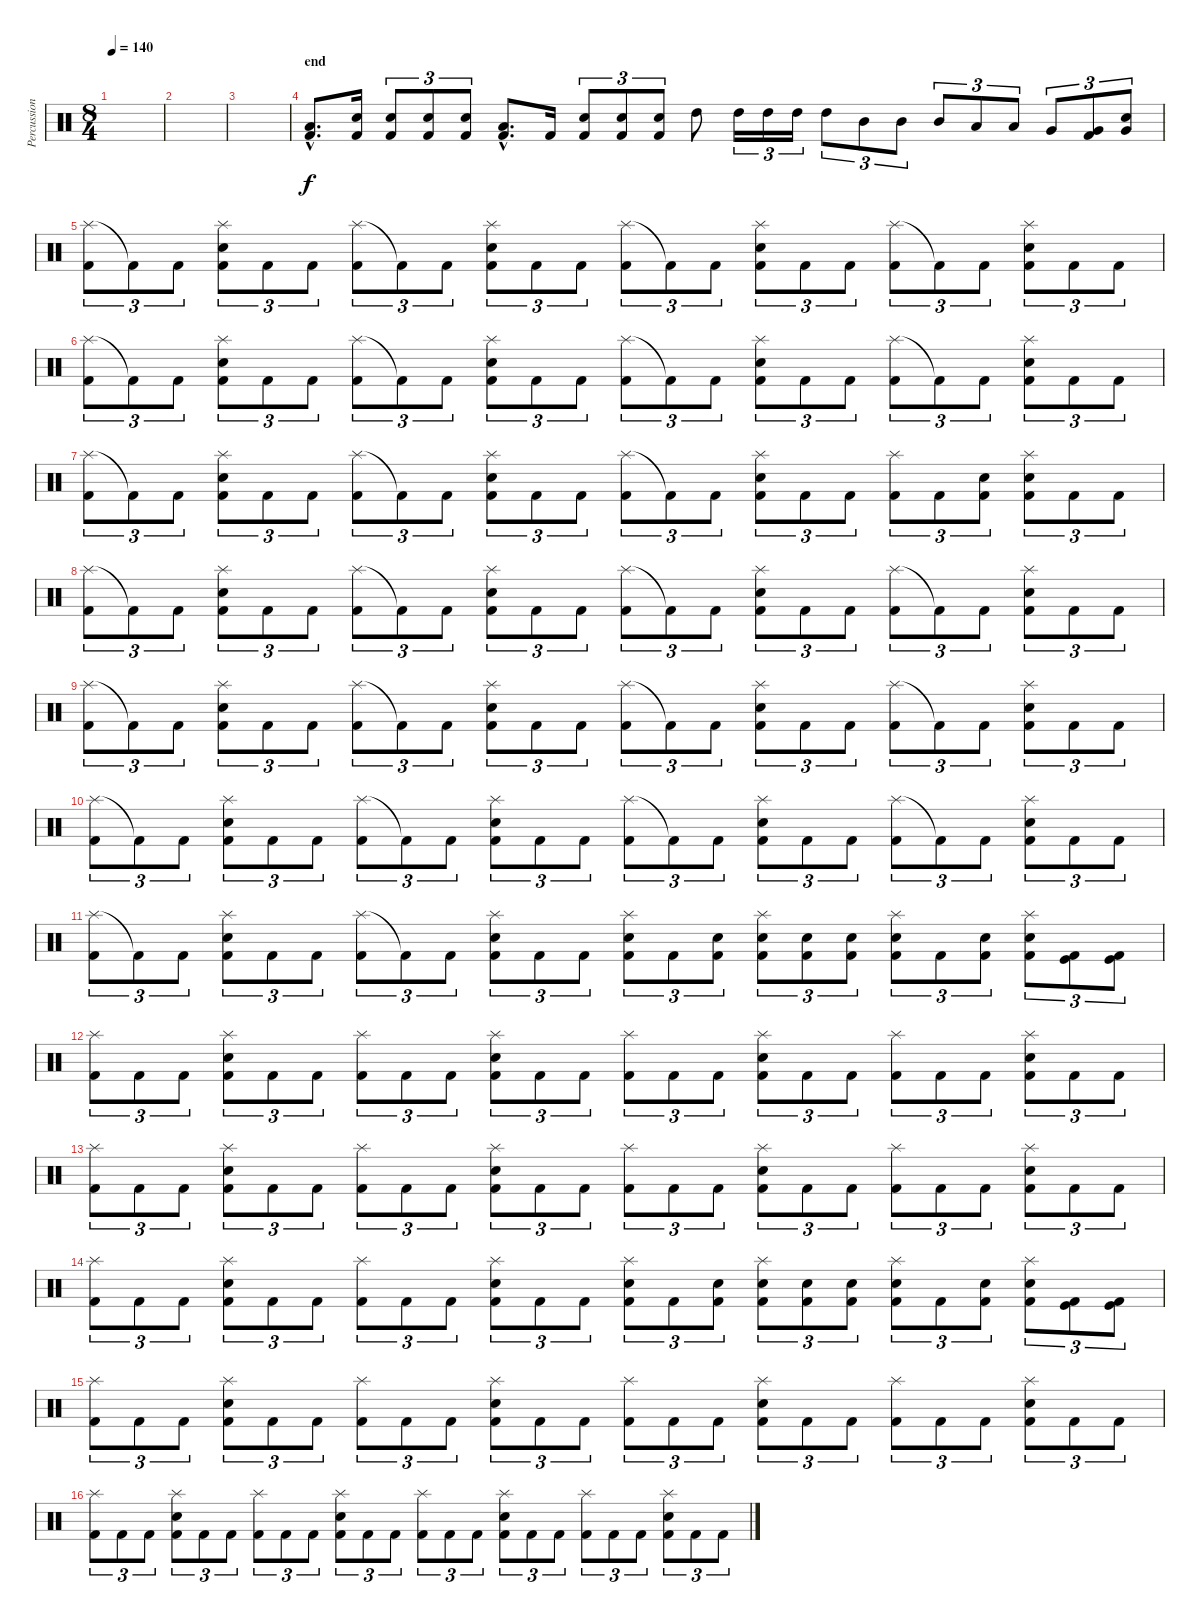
\track ("Percussion" "Percussion") {instrument percussion}
\staff {score}
\articulation defaults
\ts (8 4)
\tempo 140
\clef neutral
\ks c
|
|
|
\section ("" "end")
("Low Tom (hit)"{hac} "Kick (hit) 2"{hac}).8{d} ("Snare (hit) 2" "Kick (hit) 2").16 ("Snare (hit) 2" "Kick (hit) 2").8{tu (3 2)} ("Snare (hit) 2" "Kick (hit) 2").8{tu (3 2)} ("Snare (hit) 2" "Kick (hit) 2").8{tu (3 2)} ("Low Floor Tom (hit)"{hac} "Kick (hit) 2"{hac}).8{d} "Kick (hit) 2".16 ("Snare (hit) 2" "Kick (hit) 2").8{tu (3 2)} ("Snare (hit) 2" "Kick (hit) 2").8{tu (3 2)} ("Snare (hit) 2" "Kick (hit) 2").8{tu (3 2)} "High Tom (hit)".8 "High Tom (hit)".16{tu (3 2)} "High Tom (hit)".16{tu (3 2)} "High Tom (hit)".16{tu (3 2)} "High Tom (hit)".8{tu (3 2)} "Mid Tom (hit)".8{tu (3 2)} "Mid Tom (hit)".8{tu (3 2)} "Mid Tom (hit)".8{tu (3 2)} "Low Tom (hit)".8{tu (3 2)} "Low Tom (hit)".8{tu (3 2)} "Very Low Tom (hit)".8{tu (3 2)} ("Kick (hit) 2" "Very Low Tom (hit)").8{tu (3 2)} ("Snare (hit) 2" "Very Low Tom (hit)").8{tu (3 2)} |
("Splash (hit)" "Kick (hit) 2").8{tu (3 2)} "Kick (hit) 2"{t}.8{tu (3 2)} "Kick (hit) 2".8{tu (3 2)} ("Splash (hit)" "Snare (hit) 2" "Kick (hit) 2").8{tu (3 2)} "Kick (hit) 2".8{tu (3 2)} "Kick (hit) 2".8{tu (3 2)} ("Splash (hit)" "Kick (hit) 2").8{tu (3 2)} "Kick (hit) 2"{t}.8{tu (3 2)} "Kick (hit) 2".8{tu (3 2)} ("Splash (hit)" "Snare (hit) 2" "Kick (hit) 2").8{tu (3 2)} "Kick (hit) 2".8{tu (3 2)} "Kick (hit) 2".8{tu (3 2)} ("Splash (hit)" "Kick (hit) 2").8{tu (3 2)} "Kick (hit) 2"{t}.8{tu (3 2)} "Kick (hit) 2".8{tu (3 2)} ("Splash (hit)" "Snare (hit) 2" "Kick (hit) 2").8{tu (3 2)} "Kick (hit) 2".8{tu (3 2)} "Kick (hit) 2".8{tu (3 2)} ("Splash (hit)" "Kick (hit) 2").8{tu (3 2)} "Kick (hit) 2"{t}.8{tu (3 2)} "Kick (hit) 2".8{tu (3 2)} ("Splash (hit)" "Snare (hit) 2" "Kick (hit) 2").8{tu (3 2)} "Kick (hit) 2".8{tu (3 2)} "Kick (hit) 2".8{tu (3 2)} |
("Splash (hit)" "Kick (hit) 2").8{tu (3 2)} "Kick (hit) 2"{t}.8{tu (3 2)} "Kick (hit) 2".8{tu (3 2)} ("Splash (hit)" "Snare (hit) 2" "Kick (hit) 2").8{tu (3 2)} "Kick (hit) 2".8{tu (3 2)} "Kick (hit) 2".8{tu (3 2)} ("Splash (hit)" "Kick (hit) 2").8{tu (3 2)} "Kick (hit) 2"{t}.8{tu (3 2)} "Kick (hit) 2".8{tu (3 2)} ("Splash (hit)" "Snare (hit) 2" "Kick (hit) 2").8{tu (3 2)} "Kick (hit) 2".8{tu (3 2)} "Kick (hit) 2".8{tu (3 2)} ("Splash (hit)" "Kick (hit) 2").8{tu (3 2)} "Kick (hit) 2"{t}.8{tu (3 2)} "Kick (hit) 2".8{tu (3 2)} ("Splash (hit)" "Snare (hit) 2" "Kick (hit) 2").8{tu (3 2)} "Kick (hit) 2".8{tu (3 2)} "Kick (hit) 2".8{tu (3 2)} ("Splash (hit)" "Kick (hit) 2").8{tu (3 2)} "Kick (hit) 2"{t}.8{tu (3 2)} "Kick (hit) 2".8{tu (3 2)} ("Splash (hit)" "Snare (hit) 2" "Kick (hit) 2").8{tu (3 2)} "Kick (hit) 2".8{tu (3 2)} "Kick (hit) 2".8{tu (3 2)} |
("Splash (hit)" "Kick (hit) 2").8{tu (3 2)} "Kick (hit) 2"{t}.8{tu (3 2)} "Kick (hit) 2".8{tu (3 2)} ("Splash (hit)" "Snare (hit) 2" "Kick (hit) 2").8{tu (3 2)} "Kick (hit) 2".8{tu (3 2)} "Kick (hit) 2".8{tu (3 2)} ("Splash (hit)" "Kick (hit) 2").8{tu (3 2)} "Kick (hit) 2"{t}.8{tu (3 2)} "Kick (hit) 2".8{tu (3 2)} ("Splash (hit)" "Snare (hit) 2" "Kick (hit) 2").8{tu (3 2)} "Kick (hit) 2".8{tu (3 2)} "Kick (hit) 2".8{tu (3 2)} ("Splash (hit)" "Kick (hit) 2").8{tu (3 2)} "Kick (hit) 2"{t}.8{tu (3 2)} "Kick (hit) 2".8{tu (3 2)} ("Splash (hit)" "Snare (hit) 2" "Kick (hit) 2").8{tu (3 2)} "Kick (hit) 2".8{tu (3 2)} "Kick (hit) 2".8{tu (3 2)} ("Splash (hit)" "Kick (hit) 2").8{tu (3 2)} "Kick (hit) 2".8{tu (3 2)} ("Snare (hit) 2" "Kick (hit) 2").8{tu (3 2)} ("Splash (hit)" "Snare (hit) 2" "Kick (hit) 2").8{tu (3 2)} "Kick (hit) 2".8{tu (3 2)} "Kick (hit) 2".8{tu (3 2)} |
("Splash (hit)" "Kick (hit) 2").8{tu (3 2)} "Kick (hit) 2"{t}.8{tu (3 2)} "Kick (hit) 2".8{tu (3 2)} ("Splash (hit)" "Snare (hit) 2" "Kick (hit) 2").8{tu (3 2)} "Kick (hit) 2".8{tu (3 2)} "Kick (hit) 2".8{tu (3 2)} ("Splash (hit)" "Kick (hit) 2").8{tu (3 2)} "Kick (hit) 2"{t}.8{tu (3 2)} "Kick (hit) 2".8{tu (3 2)} ("Splash (hit)" "Snare (hit) 2" "Kick (hit) 2").8{tu (3 2)} "Kick (hit) 2".8{tu (3 2)} "Kick (hit) 2".8{tu (3 2)} ("Splash (hit)" "Kick (hit) 2").8{tu (3 2)} "Kick (hit) 2"{t}.8{tu (3 2)} "Kick (hit) 2".8{tu (3 2)} ("Splash (hit)" "Snare (hit) 2" "Kick (hit) 2").8{tu (3 2)} "Kick (hit) 2".8{tu (3 2)} "Kick (hit) 2".8{tu (3 2)} ("Splash (hit)" "Kick (hit) 2").8{tu (3 2)} "Kick (hit) 2"{t}.8{tu (3 2)} "Kick (hit) 2".8{tu (3 2)} ("Splash (hit)" "Snare (hit) 2" "Kick (hit) 2").8{tu (3 2)} "Kick (hit) 2".8{tu (3 2)} "Kick (hit) 2".8{tu (3 2)} |
("Splash (hit)" "Kick (hit) 2").8{tu (3 2)} "Kick (hit) 2"{t}.8{tu (3 2)} "Kick (hit) 2".8{tu (3 2)} ("Splash (hit)" "Snare (hit) 2" "Kick (hit) 2").8{tu (3 2)} "Kick (hit) 2".8{tu (3 2)} "Kick (hit) 2".8{tu (3 2)} ("Splash (hit)" "Kick (hit) 2").8{tu (3 2)} "Kick (hit) 2"{t}.8{tu (3 2)} "Kick (hit) 2".8{tu (3 2)} ("Splash (hit)" "Snare (hit) 2" "Kick (hit) 2").8{tu (3 2)} "Kick (hit) 2".8{tu (3 2)} "Kick (hit) 2".8{tu (3 2)} ("Splash (hit)" "Kick (hit) 2").8{tu (3 2)} "Kick (hit) 2"{t}.8{tu (3 2)} "Kick (hit) 2".8{tu (3 2)} ("Splash (hit)" "Snare (hit) 2" "Kick (hit) 2").8{tu (3 2)} "Kick (hit) 2".8{tu (3 2)} "Kick (hit) 2".8{tu (3 2)} ("Splash (hit)" "Kick (hit) 2").8{tu (3 2)} "Kick (hit) 2"{t}.8{tu (3 2)} "Kick (hit) 2".8{tu (3 2)} ("Splash (hit)" "Snare (hit) 2" "Kick (hit) 2").8{tu (3 2)} "Kick (hit) 2".8{tu (3 2)} "Kick (hit) 2".8{tu (3 2)} |
("Splash (hit)" "Kick (hit) 2").8{tu (3 2)} "Kick (hit) 2"{t}.8{tu (3 2)} "Kick (hit) 2".8{tu (3 2)} ("Splash (hit)" "Snare (hit) 2" "Kick (hit) 2").8{tu (3 2)} "Kick (hit) 2".8{tu (3 2)} "Kick (hit) 2".8{tu (3 2)} ("Splash (hit)" "Kick (hit) 2").8{tu (3 2)} "Kick (hit) 2"{t}.8{tu (3 2)} "Kick (hit) 2".8{tu (3 2)} ("Splash (hit)" "Snare (hit) 2" "Kick (hit) 2").8{tu (3 2)} "Kick (hit) 2".8{tu (3 2)} "Kick (hit) 2".8{tu (3 2)} ("Splash (hit)" "Kick (hit) 2").8{tu (3 2)} "Kick (hit) 2"{t}.8{tu (3 2)} "Kick (hit) 2".8{tu (3 2)} ("Splash (hit)" "Snare (hit) 2" "Kick (hit) 2").8{tu (3 2)} "Kick (hit) 2".8{tu (3 2)} "Kick (hit) 2".8{tu (3 2)} ("Splash (hit)" "Kick (hit) 2").8{tu (3 2)} "Kick (hit) 2"{t}.8{tu (3 2)} "Kick (hit) 2".8{tu (3 2)} ("Splash (hit)" "Snare (hit) 2" "Kick (hit) 2").8{tu (3 2)} "Kick (hit) 2".8{tu (3 2)} "Kick (hit) 2".8{tu (3 2)} |
("Splash (hit)" "Kick (hit) 2").8{tu (3 2)} "Kick (hit) 2"{t}.8{tu (3 2)} "Kick (hit) 2".8{tu (3 2)} ("Splash (hit)" "Snare (hit) 2" "Kick (hit) 2").8{tu (3 2)} "Kick (hit) 2".8{tu (3 2)} "Kick (hit) 2".8{tu (3 2)} ("Splash (hit)" "Kick (hit) 2").8{tu (3 2)} "Kick (hit) 2"{t}.8{tu (3 2)} "Kick (hit) 2".8{tu (3 2)} ("Splash (hit)" "Snare (hit) 2" "Kick (hit) 2").8{tu (3 2)} "Kick (hit) 2".8{tu (3 2)} "Kick (hit) 2".8{tu (3 2)} ("Splash (hit)" "Snare (hit) 2" "Kick (hit) 2").8{tu (3 2)} "Kick (hit) 2".8{tu (3 2)} ("Snare (hit) 2" "Kick (hit) 2").8{tu (3 2)} ("Splash (hit)" "Snare (hit) 2" "Kick (hit) 2").8{tu (3 2)} ("Snare (hit) 2" "Kick (hit) 2").8{tu (3 2)} ("Snare (hit) 2" "Kick (hit) 2").8{tu (3 2)} ("Splash (hit)" "Snare (hit) 2" "Kick (hit) 2").8{tu (3 2)} "Kick (hit) 2".8{tu (3 2)} ("Snare (hit) 2" "Kick (hit) 2").8{tu (3 2)} ("Splash (hit)" "Snare (hit) 2" "Kick (hit) 2").8{tu (3 2)} ("Kick (hit)" "Kick (hit) 2").8{tu (3 2)} ("Kick (hit)" "Kick (hit) 2").8{tu (3 2)} |
("Splash (hit)" "Kick (hit) 2").8{tu (3 2)} "Kick (hit) 2".8{tu (3 2)} "Kick (hit) 2".8{tu (3 2)} ("Splash (hit)" "Snare (hit) 2" "Kick (hit) 2").8{tu (3 2)} "Kick (hit) 2".8{tu (3 2)} "Kick (hit) 2".8{tu (3 2)} ("Splash (hit)" "Kick (hit) 2").8{tu (3 2)} "Kick (hit) 2".8{tu (3 2)} "Kick (hit) 2".8{tu (3 2)} ("Splash (hit)" "Snare (hit) 2" "Kick (hit) 2").8{tu (3 2)} "Kick (hit) 2".8{tu (3 2)} "Kick (hit) 2".8{tu (3 2)} ("Splash (hit)" "Kick (hit) 2").8{tu (3 2)} "Kick (hit) 2".8{tu (3 2)} "Kick (hit) 2".8{tu (3 2)} ("Splash (hit)" "Snare (hit) 2" "Kick (hit) 2").8{tu (3 2)} "Kick (hit) 2".8{tu (3 2)} "Kick (hit) 2".8{tu (3 2)} ("Splash (hit)" "Kick (hit) 2").8{tu (3 2)} "Kick (hit) 2".8{tu (3 2)} "Kick (hit) 2".8{tu (3 2)} ("Splash (hit)" "Snare (hit) 2" "Kick (hit) 2").8{tu (3 2)} "Kick (hit) 2".8{tu (3 2)} "Kick (hit) 2".8{tu (3 2)} |
("Splash (hit)" "Kick (hit) 2").8{tu (3 2)} "Kick (hit) 2".8{tu (3 2)} "Kick (hit) 2".8{tu (3 2)} ("Splash (hit)" "Snare (hit) 2" "Kick (hit) 2").8{tu (3 2)} "Kick (hit) 2".8{tu (3 2)} "Kick (hit) 2".8{tu (3 2)} ("Splash (hit)" "Kick (hit) 2").8{tu (3 2)} "Kick (hit) 2".8{tu (3 2)} "Kick (hit) 2".8{tu (3 2)} ("Splash (hit)" "Snare (hit) 2" "Kick (hit) 2").8{tu (3 2)} "Kick (hit) 2".8{tu (3 2)} "Kick (hit) 2".8{tu (3 2)} ("Splash (hit)" "Kick (hit) 2").8{tu (3 2)} "Kick (hit) 2".8{tu (3 2)} "Kick (hit) 2".8{tu (3 2)} ("Splash (hit)" "Snare (hit) 2" "Kick (hit) 2").8{tu (3 2)} "Kick (hit) 2".8{tu (3 2)} "Kick (hit) 2".8{tu (3 2)} ("Splash (hit)" "Kick (hit) 2").8{tu (3 2)} "Kick (hit) 2".8{tu (3 2)} "Kick (hit) 2".8{tu (3 2)} ("Splash (hit)" "Snare (hit) 2" "Kick (hit) 2").8{tu (3 2)} "Kick (hit) 2".8{tu (3 2)} "Kick (hit) 2".8{tu (3 2)} |
("Splash (hit)" "Kick (hit) 2").8{tu (3 2)} "Kick (hit) 2".8{tu (3 2)} "Kick (hit) 2".8{tu (3 2)} ("Splash (hit)" "Snare (hit) 2" "Kick (hit) 2").8{tu (3 2)} "Kick (hit) 2".8{tu (3 2)} "Kick (hit) 2".8{tu (3 2)} ("Splash (hit)" "Kick (hit) 2").8{tu (3 2)} "Kick (hit) 2".8{tu (3 2)} "Kick (hit) 2".8{tu (3 2)} ("Splash (hit)" "Snare (hit) 2" "Kick (hit) 2").8{tu (3 2)} "Kick (hit) 2".8{tu (3 2)} "Kick (hit) 2".8{tu (3 2)} ("Splash (hit)" "Snare (hit) 2" "Kick (hit) 2").8{tu (3 2)} "Kick (hit) 2".8{tu (3 2)} ("Snare (hit) 2" "Kick (hit) 2").8{tu (3 2)} ("Splash (hit)" "Snare (hit) 2" "Kick (hit) 2").8{tu (3 2)} ("Snare (hit) 2" "Kick (hit) 2").8{tu (3 2)} ("Snare (hit) 2" "Kick (hit) 2").8{tu (3 2)} ("Splash (hit)" "Snare (hit) 2" "Kick (hit) 2").8{tu (3 2)} "Kick (hit) 2".8{tu (3 2)} ("Snare (hit) 2" "Kick (hit) 2").8{tu (3 2)} ("Splash (hit)" "Snare (hit) 2" "Kick (hit) 2").8{tu (3 2)} ("Kick (hit)" "Kick (hit) 2").8{tu (3 2)} ("Kick (hit)" "Kick (hit) 2").8{tu (3 2)} |
("Splash (hit)" "Kick (hit) 2").8{tu (3 2)} "Kick (hit) 2".8{tu (3 2)} "Kick (hit) 2".8{tu (3 2)} ("Splash (hit)" "Snare (hit) 2" "Kick (hit) 2").8{tu (3 2)} "Kick (hit) 2".8{tu (3 2)} "Kick (hit) 2".8{tu (3 2)} ("Splash (hit)" "Kick (hit) 2").8{tu (3 2)} "Kick (hit) 2".8{tu (3 2)} "Kick (hit) 2".8{tu (3 2)} ("Splash (hit)" "Snare (hit) 2" "Kick (hit) 2").8{tu (3 2)} "Kick (hit) 2".8{tu (3 2)} "Kick (hit) 2".8{tu (3 2)} ("Splash (hit)" "Kick (hit) 2").8{tu (3 2)} "Kick (hit) 2".8{tu (3 2)} "Kick (hit) 2".8{tu (3 2)} ("Splash (hit)" "Snare (hit) 2" "Kick (hit) 2").8{tu (3 2)} "Kick (hit) 2".8{tu (3 2)} "Kick (hit) 2".8{tu (3 2)} ("Splash (hit)" "Kick (hit) 2").8{tu (3 2)} "Kick (hit) 2".8{tu (3 2)} "Kick (hit) 2".8{tu (3 2)} ("Splash (hit)" "Snare (hit) 2" "Kick (hit) 2").8{tu (3 2)} "Kick (hit) 2".8{tu (3 2)} "Kick (hit) 2".8{tu (3 2)} |
("Splash (hit)" "Kick (hit) 2").8{tu (3 2)} "Kick (hit) 2".8{tu (3 2)} "Kick (hit) 2".8{tu (3 2)} ("Splash (hit)" "Snare (hit) 2" "Kick (hit) 2").8{tu (3 2)} "Kick (hit) 2".8{tu (3 2)} "Kick (hit) 2".8{tu (3 2)} ("Splash (hit)" "Kick (hit) 2").8{tu (3 2)} "Kick (hit) 2".8{tu (3 2)} "Kick (hit) 2".8{tu (3 2)} ("Splash (hit)" "Snare (hit) 2" "Kick (hit) 2").8{tu (3 2)} "Kick (hit) 2".8{tu (3 2)} "Kick (hit) 2".8{tu (3 2)} ("Splash (hit)" "Kick (hit) 2").8{tu (3 2)} "Kick (hit) 2".8{tu (3 2)} "Kick (hit) 2".8{tu (3 2)} ("Splash (hit)" "Snare (hit) 2" "Kick (hit) 2").8{tu (3 2)} "Kick (hit) 2".8{tu (3 2)} "Kick (hit) 2".8{tu (3 2)} ("Splash (hit)" "Kick (hit) 2").8{tu (3 2)} "Kick (hit) 2".8{tu (3 2)} "Kick (hit) 2".8{tu (3 2)} ("Splash (hit)" "Snare (hit) 2" "Kick (hit) 2").8{tu (3 2)} "Kick (hit) 2".8{tu (3 2)} "Kick (hit) 2".8{tu (3 2)}
